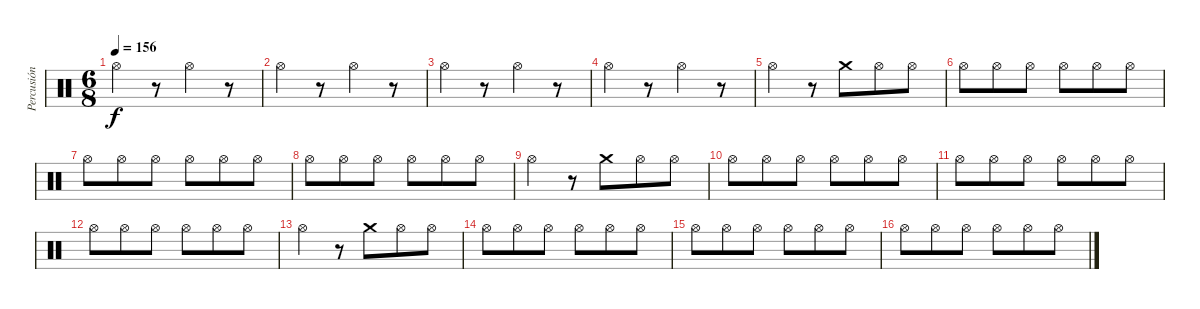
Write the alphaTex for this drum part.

\track ("Percusión" "Percusión") {instrument percussion}
\staff {score}
\articulation defaults
\ts (6 8)
\tempo 156
\clef neutral
\ks c "Hi-Hat (open)".4{dy f}
r.8 "Hi-Hat (open)".4 r.8 |
"Hi-Hat (open)".4 r.8 "Hi-Hat (open)".4 r.8 |
"Hi-Hat (open)".4 r.8 "Hi-Hat (open)".4 r.8 |
"Hi-Hat (open)".4 r.8 "Hi-Hat (open)".4 r.8 |
"Hi-Hat (open)".4 r.8 "Crash medium (hit)".8 "Hi-Hat (open)".8 "Hi-Hat (open)".8 |
"Hi-Hat (open)".8 "Hi-Hat (open)".8 "Hi-Hat (open)".8 "Hi-Hat (open)".8 "Hi-Hat (open)".8 "Hi-Hat (open)".8 |
"Hi-Hat (open)".8 "Hi-Hat (open)".8 "Hi-Hat (open)".8 "Hi-Hat (open)".8 "Hi-Hat (open)".8 "Hi-Hat (open)".8 |
"Hi-Hat (open)".8 "Hi-Hat (open)".8 "Hi-Hat (open)".8 "Hi-Hat (open)".8 "Hi-Hat (open)".8 "Hi-Hat (open)".8 |
"Hi-Hat (open)".4 r.8 "Crash medium (hit)".8 "Hi-Hat (open)".8 "Hi-Hat (open)".8 |
"Hi-Hat (open)".8 "Hi-Hat (open)".8 "Hi-Hat (open)".8 "Hi-Hat (open)".8 "Hi-Hat (open)".8 "Hi-Hat (open)".8 |
"Hi-Hat (open)".8 "Hi-Hat (open)".8 "Hi-Hat (open)".8 "Hi-Hat (open)".8 "Hi-Hat (open)".8 "Hi-Hat (open)".8 |
"Hi-Hat (open)".8 "Hi-Hat (open)".8 "Hi-Hat (open)".8 "Hi-Hat (open)".8 "Hi-Hat (open)".8 "Hi-Hat (open)".8 |
"Hi-Hat (open)".4 r.8 "Crash medium (hit)".8 "Hi-Hat (open)".8 "Hi-Hat (open)".8 |
"Hi-Hat (open)".8 "Hi-Hat (open)".8 "Hi-Hat (open)".8 "Hi-Hat (open)".8 "Hi-Hat (open)".8 "Hi-Hat (open)".8 |
"Hi-Hat (open)".8 "Hi-Hat (open)".8 "Hi-Hat (open)".8 "Hi-Hat (open)".8 "Hi-Hat (open)".8 "Hi-Hat (open)".8 |
"Hi-Hat (open)".8 "Hi-Hat (open)".8 "Hi-Hat (open)".8 "Hi-Hat (open)".8 "Hi-Hat (open)".8 "Hi-Hat (open)".8
